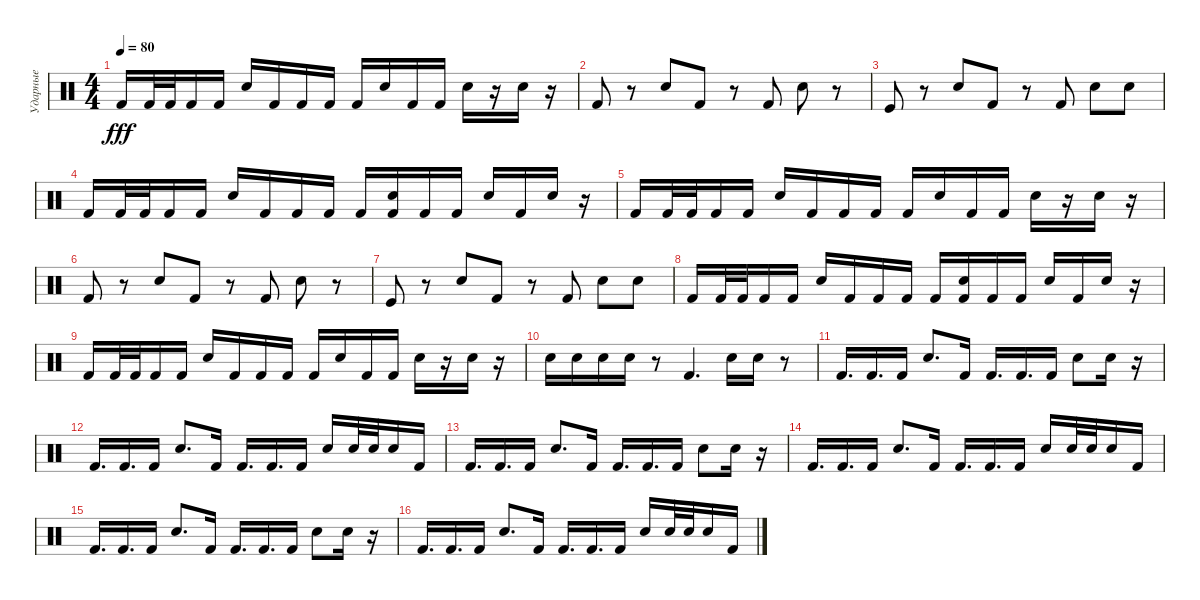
\track ("Ударные" "Ударные") {instrument percussion}
\staff {score}
\articulation defaults
\ts (4 4)
\tempo 80
\clef neutral
\ks c "Kick (hit) 2".16{dy fff} "Kick (hit) 2".32 "Kick (hit) 2".32 "Kick (hit) 2".16 "Kick (hit) 2".16 "Electric Snare (hit)".16 "Kick (hit) 2".16 "Kick (hit) 2".16 "Kick (hit) 2".16 "Kick (hit) 2".16 "Electric Snare (hit)".16 "Kick (hit) 2".16 "Kick (hit) 2".16 "Electric Snare (hit)".16
r.16 "Electric Snare (hit)".16 r.16 |
"Kick (hit) 2".8 r.8 "Electric Snare (hit)".8 "Kick (hit) 2".8 r.8 "Kick (hit) 2".8 "Electric Snare (hit)".8 r.8 |
"Kick (hit)".8 r.8 "Electric Snare (hit)".8 "Kick (hit) 2".8 r.8 "Kick (hit) 2".8 "Electric Snare (hit)".8 "Electric Snare (hit)".8 |
"Kick (hit) 2".16 "Kick (hit) 2".32 "Kick (hit) 2".32 "Kick (hit) 2".16 "Kick (hit) 2".16 "Electric Snare (hit)".16 "Kick (hit) 2".16 "Kick (hit) 2".16 "Kick (hit) 2".16 "Kick (hit) 2".16 ("Kick (hit) 2" "Electric Snare (hit)").16 "Kick (hit) 2".16 "Kick (hit) 2".16 "Electric Snare (hit)".16 "Kick (hit) 2".16 "Electric Snare (hit)".16 r.16 |
"Kick (hit) 2".16 "Kick (hit) 2".32 "Kick (hit) 2".32 "Kick (hit) 2".16 "Kick (hit) 2".16 "Electric Snare (hit)".16 "Kick (hit) 2".16 "Kick (hit) 2".16 "Kick (hit) 2".16 "Kick (hit) 2".16 "Electric Snare (hit)".16 "Kick (hit) 2".16 "Kick (hit) 2".16 "Electric Snare (hit)".16 r.16 "Electric Snare (hit)".16 r.16 |
"Kick (hit) 2".8 r.8 "Electric Snare (hit)".8 "Kick (hit) 2".8 r.8 "Kick (hit) 2".8 "Electric Snare (hit)".8 r.8 |
"Kick (hit)".8 r.8 "Electric Snare (hit)".8 "Kick (hit) 2".8 r.8 "Kick (hit) 2".8 "Electric Snare (hit)".8 "Electric Snare (hit)".8 |
"Kick (hit) 2".16 "Kick (hit) 2".32 "Kick (hit) 2".32 "Kick (hit) 2".16 "Kick (hit) 2".16 "Electric Snare (hit)".16 "Kick (hit) 2".16 "Kick (hit) 2".16 "Kick (hit) 2".16 "Kick (hit) 2".16 ("Kick (hit) 2" "Electric Snare (hit)").16 "Kick (hit) 2".16 "Kick (hit) 2".16 "Electric Snare (hit)".16 "Kick (hit) 2".16 "Electric Snare (hit)".16 r.16 |
"Kick (hit) 2".16 "Kick (hit) 2".32 "Kick (hit) 2".32 "Kick (hit) 2".16 "Kick (hit) 2".16 "Electric Snare (hit)".16 "Kick (hit) 2".16 "Kick (hit) 2".16 "Kick (hit) 2".16 "Kick (hit) 2".16 "Electric Snare (hit)".16 "Kick (hit) 2".16 "Kick (hit) 2".16 "Electric Snare (hit)".16 r.16 "Electric Snare (hit)".16 r.16 |
"Electric Snare (hit)".16 "Electric Snare (hit)".16 "Electric Snare (hit)".16 "Electric Snare (hit)".16 r.8 "Kick (hit) 2".4{d} "Electric Snare (hit)".16 "Electric Snare (hit)".16 r.8 |
"Kick (hit) 2".16{d} "Kick (hit) 2".16{d} "Kick (hit) 2".16 "Electric Snare (hit)".8{d} "Kick (hit) 2".16 "Kick (hit) 2".16{d} "Kick (hit) 2".16{d} "Kick (hit) 2".16 "Electric Snare (hit)".8 "Electric Snare (hit)".16 r.16 |
"Kick (hit) 2".16{d} "Kick (hit) 2".16{d} "Kick (hit) 2".16 "Electric Snare (hit)".8{d} "Kick (hit) 2".16 "Kick (hit) 2".16{d} "Kick (hit) 2".16{d} "Kick (hit) 2".16 "Electric Snare (hit)".16 "Electric Snare (hit)".32 "Electric Snare (hit)".32 "Electric Snare (hit)".16 "Kick (hit) 2".16 |
"Kick (hit) 2".16{d} "Kick (hit) 2".16{d} "Kick (hit) 2".16 "Electric Snare (hit)".8{d} "Kick (hit) 2".16 "Kick (hit) 2".16{d} "Kick (hit) 2".16{d} "Kick (hit) 2".16 "Electric Snare (hit)".8 "Electric Snare (hit)".16 r.16 |
"Kick (hit) 2".16{d} "Kick (hit) 2".16{d} "Kick (hit) 2".16 "Electric Snare (hit)".8{d} "Kick (hit) 2".16 "Kick (hit) 2".16{d} "Kick (hit) 2".16{d} "Kick (hit) 2".16 "Electric Snare (hit)".16 "Electric Snare (hit)".32 "Electric Snare (hit)".32 "Electric Snare (hit)".16 "Kick (hit) 2".16 |
"Kick (hit) 2".16{d} "Kick (hit) 2".16{d} "Kick (hit) 2".16 "Electric Snare (hit)".8{d} "Kick (hit) 2".16 "Kick (hit) 2".16{d} "Kick (hit) 2".16{d} "Kick (hit) 2".16 "Electric Snare (hit)".8 "Electric Snare (hit)".16 r.16 |
"Kick (hit) 2".16{d} "Kick (hit) 2".16{d} "Kick (hit) 2".16 "Electric Snare (hit)".8{d} "Kick (hit) 2".16 "Kick (hit) 2".16{d} "Kick (hit) 2".16{d} "Kick (hit) 2".16 "Electric Snare (hit)".16 "Electric Snare (hit)".32 "Electric Snare (hit)".32 "Electric Snare (hit)".16 "Kick (hit) 2".16
